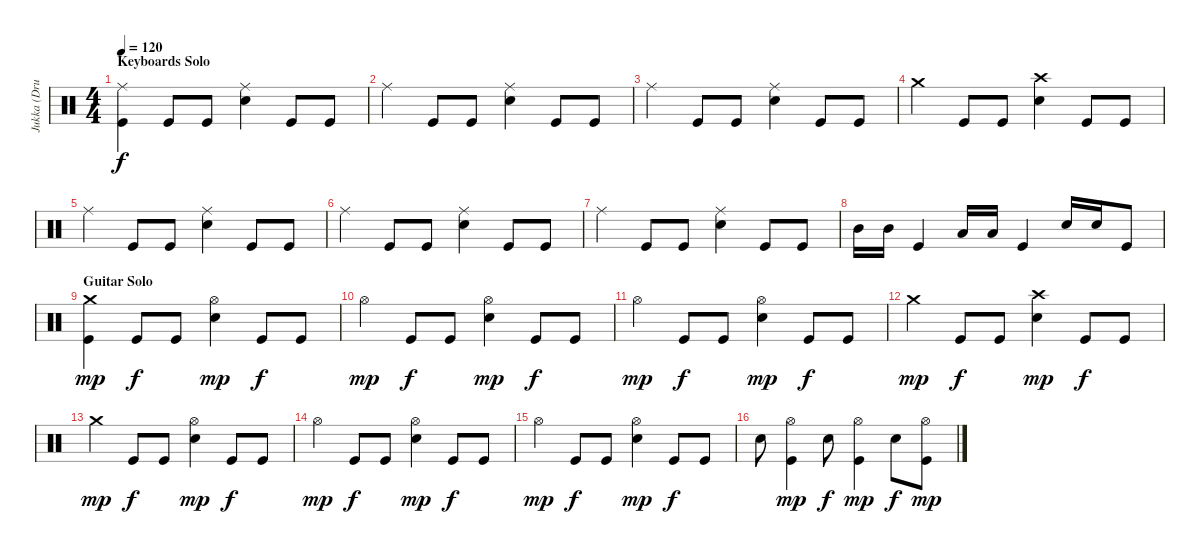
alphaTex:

\track ("Jukka (Drums)" "Jukka (Dru") {instrument percussion}
\staff {score}
\articulation defaults
\ts (4 4)
\section ("" "Keyboards Solo")
\tempo 120
\clef neutral
\ks c
("Ride (middle)" "Kick (hit)").4{dy f} "Kick (hit)".8 "Kick (hit)".8 ("Ride (middle)" "Electric Snare (hit)").4 "Kick (hit)".8 "Kick (hit)".8 |
"Ride (middle)".4 "Kick (hit)".8 "Kick (hit)".8 ("Ride (middle)" "Electric Snare (hit)").4 "Kick (hit)".8 "Kick (hit)".8 |
"Ride (middle)".4 "Kick (hit)".8 "Kick (hit)".8 ("Ride (middle)" "Electric Snare (hit)").4 "Kick (hit)".8 "Kick (hit)".8 |
"Crash medium (hit)".4 "Kick (hit)".8 "Kick (hit)".8 ("Crash high (hit)" "Electric Snare (hit)").4 "Kick (hit)".8 "Kick (hit)".8 |
"Ride (middle)".4 "Kick (hit)".8 "Kick (hit)".8 ("Ride (middle)" "Electric Snare (hit)").4 "Kick (hit)".8 "Kick (hit)".8 |
"Ride (middle)".4 "Kick (hit)".8 "Kick (hit)".8 ("Ride (middle)" "Electric Snare (hit)").4 "Kick (hit)".8 "Kick (hit)".8 |
"Ride (middle)".4 "Kick (hit)".8 "Kick (hit)".8 ("Ride (middle)" "Electric Snare (hit)").4 "Kick (hit)".8 "Kick (hit)".8 |
"Mid Tom (hit)".16 "Mid Tom (hit)".16 "Kick (hit)".4 "Low Tom (hit)".16 "Low Tom (hit)".16 "Kick (hit)".4 "Electric Snare (hit)".16 "Electric Snare (hit)".16 "Kick (hit)".8 |
\section ("" "Guitar Solo")
("Crash medium (hit)" "Kick (hit)").4{dy mp} "Kick (hit)".8{dy f} "Kick (hit)".8 ("Hi-Hat (open)" "Electric Snare (hit)").4{dy mp} "Kick (hit)".8{dy f} "Kick (hit)".8 |
"Hi-Hat (open)".4{dy mp} "Kick (hit)".8{dy f} "Kick (hit)".8 ("Hi-Hat (open)" "Electric Snare (hit)").4{dy mp} "Kick (hit)".8{dy f} "Kick (hit)".8 |
"Hi-Hat (open)".4{dy mp} "Kick (hit)".8{dy f} "Kick (hit)".8 ("Hi-Hat (open)" "Electric Snare (hit)").4{dy mp} "Kick (hit)".8{dy f} "Kick (hit)".8 |
"Crash medium (hit)".4{dy mp} "Kick (hit)".8{dy f} "Kick (hit)".8 ("Crash high (hit)" "Electric Snare (hit)").4{dy mp} "Kick (hit)".8{dy f} "Kick (hit)".8 |
"Crash medium (hit)".4{dy mp} "Kick (hit)".8{dy f} "Kick (hit)".8 ("Hi-Hat (open)" "Electric Snare (hit)").4{dy mp} "Kick (hit)".8{dy f} "Kick (hit)".8 |
"Hi-Hat (open)".4{dy mp} "Kick (hit)".8{dy f} "Kick (hit)".8 ("Hi-Hat (open)" "Electric Snare (hit)").4{dy mp} "Kick (hit)".8{dy f} "Kick (hit)".8 |
"Hi-Hat (open)".4{dy mp} "Kick (hit)".8{dy f} "Kick (hit)".8 ("Hi-Hat (open)" "Electric Snare (hit)").4{dy mp} "Kick (hit)".8{dy f} "Kick (hit)".8 |
"Electric Snare (hit)".8 ("Hi-Hat (open)" "Kick (hit)").4{dy mp} "Electric Snare (hit)".8{dy f} ("Hi-Hat (open)" "Kick (hit)").4{dy mp} "Electric Snare (hit)".8{dy f} ("Hi-Hat (open)" "Kick (hit)").8{dy mp}
